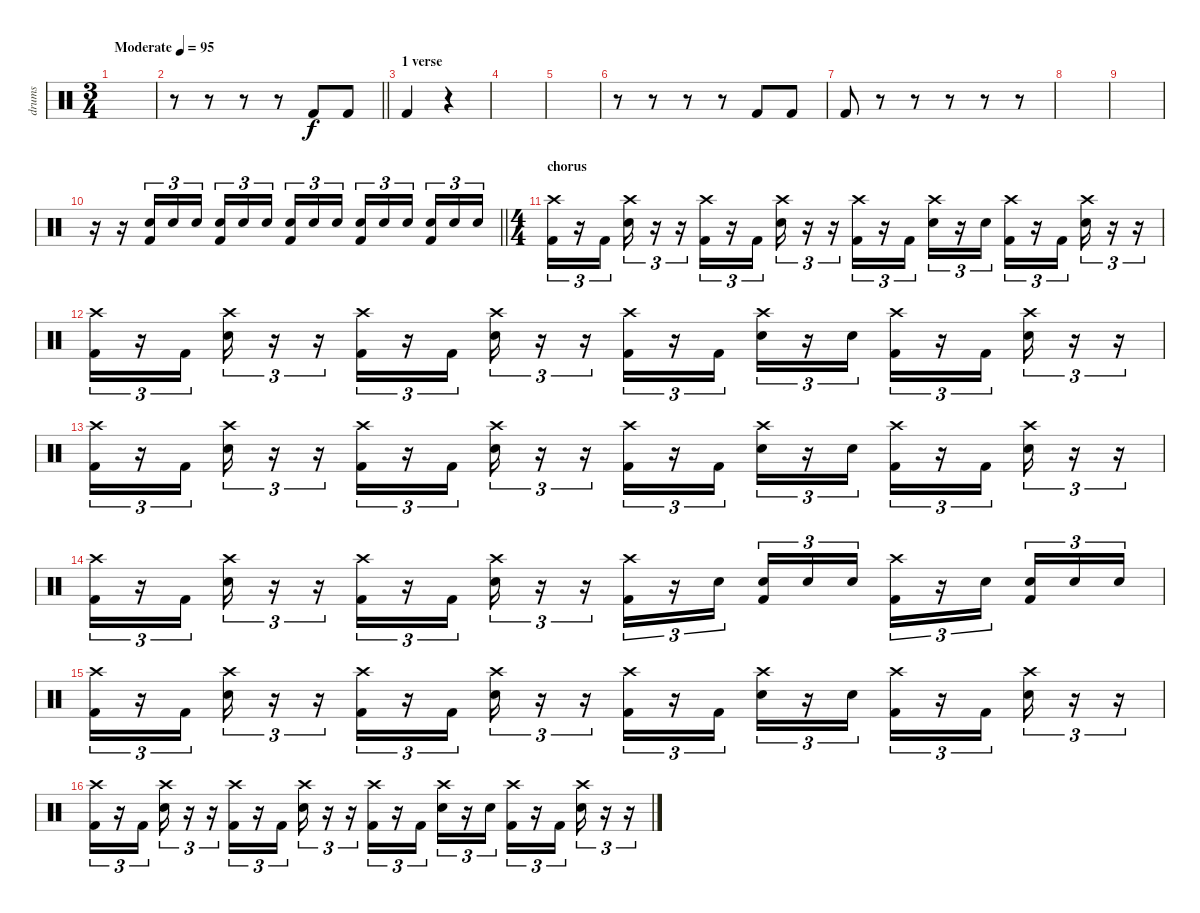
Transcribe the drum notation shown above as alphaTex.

\track ("drums" "drums") {instrument percussion}
\staff {score}
\articulation defaults
\ts (3 4)
\tempo (95 "Moderate")
\clef neutral
\ks c
|
\barLineRight lightlight
r.8 r.8 r.8 r.8 "Kick (hit) 2".8 "Kick (hit) 2".8 |
\section ("" "1 verse")
"Kick (hit) 2".4 r.4 |
|
|
r.8 r.8 r.8 r.8 "Kick (hit) 2".8 "Kick (hit) 2".8 |
"Kick (hit) 2".8 r.8 r.8 r.8 r.8 r.8 |
|
|
\barLineRight lightlight
r.16 r.16 ("Electric Snare (hit)" "Kick (hit) 2").16{tu (3 2)} "Electric Snare (hit)".16{tu (3 2)} "Electric Snare (hit)".16{tu (3 2)} ("Electric Snare (hit)" "Kick (hit) 2").16{tu (3 2)} "Electric Snare (hit)".16{tu (3 2)} "Electric Snare (hit)".16{tu (3 2) beam splitsecondary} ("Electric Snare (hit)" "Kick (hit) 2").16{tu (3 2)} "Electric Snare (hit)".16{tu (3 2)} "Electric Snare (hit)".16{tu (3 2)} ("Electric Snare (hit)" "Kick (hit) 2").16{tu (3 2)} "Electric Snare (hit)".16{tu (3 2)} "Electric Snare (hit)".16{tu (3 2) beam splitsecondary} ("Electric Snare (hit)" "Kick (hit) 2").16{tu (3 2)} "Electric Snare (hit)".16{tu (3 2)} "Electric Snare (hit)".16{tu (3 2)} |
\ts (4 4)
\section ("" "chorus")
("Crash high (hit)" "Kick (hit) 2").16{tu (3 2)} r.16{tu (3 2)} "Kick (hit) 2".16{tu (3 2)} ("Crash high (hit)" "Electric Snare (hit)").16{tu (3 2)} r.16{tu (3 2)} r.16{tu (3 2)} ("Crash high (hit)" "Kick (hit) 2").16{tu (3 2)} r.16{tu (3 2)} "Kick (hit) 2".16{tu (3 2)} ("Crash high (hit)" "Electric Snare (hit)").16{tu (3 2)} r.16{tu (3 2)} r.16{tu (3 2)} ("Crash high (hit)" "Kick (hit) 2").16{tu (3 2)} r.16{tu (3 2)} "Kick (hit) 2".16{tu (3 2)} ("Crash high (hit)" "Electric Snare (hit)").16{tu (3 2)} r.16{tu (3 2)} "Electric Snare (hit)".16{tu (3 2)} ("Crash high (hit)" "Kick (hit) 2").16{tu (3 2)} r.16{tu (3 2)} "Kick (hit) 2".16{tu (3 2)} ("Crash high (hit)" "Electric Snare (hit)").16{tu (3 2)} r.16{tu (3 2)} r.16{tu (3 2)} |
("Crash high (hit)" "Kick (hit) 2").16{tu (3 2)} r.16{tu (3 2)} "Kick (hit) 2".16{tu (3 2)} ("Crash high (hit)" "Electric Snare (hit)").16{tu (3 2)} r.16{tu (3 2)} r.16{tu (3 2)} ("Crash high (hit)" "Kick (hit) 2").16{tu (3 2)} r.16{tu (3 2)} "Kick (hit) 2".16{tu (3 2)} ("Crash high (hit)" "Electric Snare (hit)").16{tu (3 2)} r.16{tu (3 2)} r.16{tu (3 2)} ("Crash high (hit)" "Kick (hit) 2").16{tu (3 2)} r.16{tu (3 2)} "Kick (hit) 2".16{tu (3 2)} ("Crash high (hit)" "Electric Snare (hit)").16{tu (3 2)} r.16{tu (3 2)} "Electric Snare (hit)".16{tu (3 2)} ("Crash high (hit)" "Kick (hit) 2").16{tu (3 2)} r.16{tu (3 2)} "Kick (hit) 2".16{tu (3 2)} ("Crash high (hit)" "Electric Snare (hit)").16{tu (3 2)} r.16{tu (3 2)} r.16{tu (3 2)} |
("Crash high (hit)" "Kick (hit) 2").16{tu (3 2)} r.16{tu (3 2)} "Kick (hit) 2".16{tu (3 2)} ("Crash high (hit)" "Electric Snare (hit)").16{tu (3 2)} r.16{tu (3 2)} r.16{tu (3 2)} ("Crash high (hit)" "Kick (hit) 2").16{tu (3 2)} r.16{tu (3 2)} "Kick (hit) 2".16{tu (3 2)} ("Crash high (hit)" "Electric Snare (hit)").16{tu (3 2)} r.16{tu (3 2)} r.16{tu (3 2)} ("Crash high (hit)" "Kick (hit) 2").16{tu (3 2)} r.16{tu (3 2)} "Kick (hit) 2".16{tu (3 2)} ("Crash high (hit)" "Electric Snare (hit)").16{tu (3 2)} r.16{tu (3 2)} "Electric Snare (hit)".16{tu (3 2)} ("Crash high (hit)" "Kick (hit) 2").16{tu (3 2)} r.16{tu (3 2)} "Kick (hit) 2".16{tu (3 2)} ("Crash high (hit)" "Electric Snare (hit)").16{tu (3 2)} r.16{tu (3 2)} r.16{tu (3 2)} |
("Crash high (hit)" "Kick (hit) 2").16{tu (3 2)} r.16{tu (3 2)} "Kick (hit) 2".16{tu (3 2)} ("Crash high (hit)" "Electric Snare (hit)").16{tu (3 2)} r.16{tu (3 2)} r.16{tu (3 2)} ("Crash high (hit)" "Kick (hit) 2").16{tu (3 2)} r.16{tu (3 2)} "Kick (hit) 2".16{tu (3 2)} ("Crash high (hit)" "Electric Snare (hit)").16{tu (3 2)} r.16{tu (3 2)} r.16{tu (3 2)} ("Crash high (hit)" "Kick (hit) 2").16{tu (3 2)} r.16{tu (3 2)} "Electric Snare (hit)".16{tu (3 2) beam splitsecondary} ("Electric Snare (hit)" "Kick (hit) 2").16{tu (3 2)} "Electric Snare (hit)".16{tu (3 2)} "Electric Snare (hit)".16{tu (3 2)} ("Crash high (hit)" "Kick (hit) 2").16{tu (3 2)} r.16{tu (3 2)} "Electric Snare (hit)".16{tu (3 2) beam splitsecondary} ("Electric Snare (hit)" "Kick (hit) 2").16{tu (3 2)} "Electric Snare (hit)".16{tu (3 2)} "Electric Snare (hit)".16{tu (3 2)} |
("Crash high (hit)" "Kick (hit) 2").16{tu (3 2)} r.16{tu (3 2)} "Kick (hit) 2".16{tu (3 2)} ("Crash high (hit)" "Electric Snare (hit)").16{tu (3 2)} r.16{tu (3 2)} r.16{tu (3 2)} ("Crash high (hit)" "Kick (hit) 2").16{tu (3 2)} r.16{tu (3 2)} "Kick (hit) 2".16{tu (3 2)} ("Crash high (hit)" "Electric Snare (hit)").16{tu (3 2)} r.16{tu (3 2)} r.16{tu (3 2)} ("Crash high (hit)" "Kick (hit) 2").16{tu (3 2)} r.16{tu (3 2)} "Kick (hit) 2".16{tu (3 2)} ("Crash high (hit)" "Electric Snare (hit)").16{tu (3 2)} r.16{tu (3 2)} "Electric Snare (hit)".16{tu (3 2)} ("Crash high (hit)" "Kick (hit) 2").16{tu (3 2)} r.16{tu (3 2)} "Kick (hit) 2".16{tu (3 2)} ("Crash high (hit)" "Electric Snare (hit)").16{tu (3 2)} r.16{tu (3 2)} r.16{tu (3 2)} |
("Crash high (hit)" "Kick (hit) 2").16{tu (3 2)} r.16{tu (3 2)} "Kick (hit) 2".16{tu (3 2)} ("Crash high (hit)" "Electric Snare (hit)").16{tu (3 2)} r.16{tu (3 2)} r.16{tu (3 2)} ("Crash high (hit)" "Kick (hit) 2").16{tu (3 2)} r.16{tu (3 2)} "Kick (hit) 2".16{tu (3 2)} ("Crash high (hit)" "Electric Snare (hit)").16{tu (3 2)} r.16{tu (3 2)} r.16{tu (3 2)} ("Crash high (hit)" "Kick (hit) 2").16{tu (3 2)} r.16{tu (3 2)} "Kick (hit) 2".16{tu (3 2)} ("Crash high (hit)" "Electric Snare (hit)").16{tu (3 2)} r.16{tu (3 2)} "Electric Snare (hit)".16{tu (3 2)} ("Crash high (hit)" "Kick (hit) 2").16{tu (3 2)} r.16{tu (3 2)} "Kick (hit) 2".16{tu (3 2)} ("Crash high (hit)" "Electric Snare (hit)").16{tu (3 2)} r.16{tu (3 2)} r.16{tu (3 2)}
